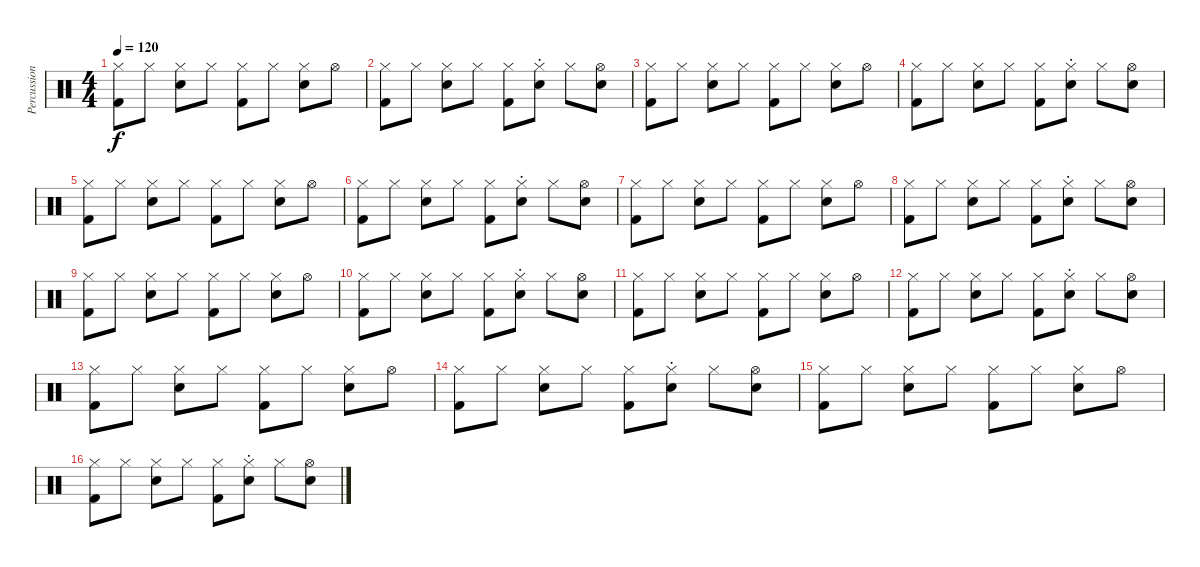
\track ("Percussion" "Percussion") {instrument percussion}
\staff {score}
\articulation defaults
\ts (4 4)
\tempo 120
\clef neutral
\ks c
("Hi-Hat (closed)" "Kick (hit) 2").8{dy f} "Hi-Hat (closed)".8 ("Hi-Hat (closed)" "Snare (hit) 2").8 "Hi-Hat (closed)".8 ("Hi-Hat (closed)" "Kick (hit) 2").8 "Hi-Hat (closed)".8 ("Hi-Hat (closed)" "Snare (hit) 2").8 "Hi-Hat (open)".8 |
("Hi-Hat (closed)" "Kick (hit) 2").8 "Hi-Hat (closed)".8 ("Hi-Hat (closed)" "Snare (hit) 2").8 "Hi-Hat (closed)".8 ("Hi-Hat (closed)" "Kick (hit) 2").8 ("Hi-Hat (closed)"{st} "Snare (hit) 2"{st}).8 "Hi-Hat (closed)".8 ("Hi-Hat (open)" "Snare (hit) 2").8 |
("Hi-Hat (closed)" "Kick (hit) 2").8 "Hi-Hat (closed)".8 ("Hi-Hat (closed)" "Snare (hit) 2").8 "Hi-Hat (closed)".8 ("Hi-Hat (closed)" "Kick (hit) 2").8 "Hi-Hat (closed)".8 ("Hi-Hat (closed)" "Snare (hit) 2").8 "Hi-Hat (open)".8 |
("Hi-Hat (closed)" "Kick (hit) 2").8 "Hi-Hat (closed)".8 ("Hi-Hat (closed)" "Snare (hit) 2").8 "Hi-Hat (closed)".8 ("Hi-Hat (closed)" "Kick (hit) 2").8 ("Hi-Hat (closed)"{st} "Snare (hit) 2"{st}).8 "Hi-Hat (closed)".8 ("Hi-Hat (open)" "Snare (hit) 2").8 |
("Hi-Hat (closed)" "Kick (hit) 2").8 "Hi-Hat (closed)".8 ("Hi-Hat (closed)" "Snare (hit) 2").8 "Hi-Hat (closed)".8 ("Hi-Hat (closed)" "Kick (hit) 2").8 "Hi-Hat (closed)".8 ("Hi-Hat (closed)" "Snare (hit) 2").8 "Hi-Hat (open)".8 |
("Hi-Hat (closed)" "Kick (hit) 2").8 "Hi-Hat (closed)".8 ("Hi-Hat (closed)" "Snare (hit) 2").8 "Hi-Hat (closed)".8 ("Hi-Hat (closed)" "Kick (hit) 2").8 ("Hi-Hat (closed)"{st} "Snare (hit) 2"{st}).8 "Hi-Hat (closed)".8 ("Hi-Hat (open)" "Snare (hit) 2").8 |
("Hi-Hat (closed)" "Kick (hit) 2").8 "Hi-Hat (closed)".8 ("Hi-Hat (closed)" "Snare (hit) 2").8 "Hi-Hat (closed)".8 ("Hi-Hat (closed)" "Kick (hit) 2").8 "Hi-Hat (closed)".8 ("Hi-Hat (closed)" "Snare (hit) 2").8 "Hi-Hat (open)".8 |
("Hi-Hat (closed)" "Kick (hit) 2").8 "Hi-Hat (closed)".8 ("Hi-Hat (closed)" "Snare (hit) 2").8 "Hi-Hat (closed)".8 ("Hi-Hat (closed)" "Kick (hit) 2").8 ("Hi-Hat (closed)"{st} "Snare (hit) 2"{st}).8 "Hi-Hat (closed)".8 ("Hi-Hat (open)" "Snare (hit) 2").8 |
("Hi-Hat (closed)" "Kick (hit) 2").8 "Hi-Hat (closed)".8 ("Hi-Hat (closed)" "Snare (hit) 2").8 "Hi-Hat (closed)".8 ("Hi-Hat (closed)" "Kick (hit) 2").8 "Hi-Hat (closed)".8 ("Hi-Hat (closed)" "Snare (hit) 2").8 "Hi-Hat (open)".8 |
("Hi-Hat (closed)" "Kick (hit) 2").8 "Hi-Hat (closed)".8 ("Hi-Hat (closed)" "Snare (hit) 2").8 "Hi-Hat (closed)".8 ("Hi-Hat (closed)" "Kick (hit) 2").8 ("Hi-Hat (closed)"{st} "Snare (hit) 2"{st}).8 "Hi-Hat (closed)".8 ("Hi-Hat (open)" "Snare (hit) 2").8 |
("Hi-Hat (closed)" "Kick (hit) 2").8 "Hi-Hat (closed)".8 ("Hi-Hat (closed)" "Snare (hit) 2").8 "Hi-Hat (closed)".8 ("Hi-Hat (closed)" "Kick (hit) 2").8 "Hi-Hat (closed)".8 ("Hi-Hat (closed)" "Snare (hit) 2").8 "Hi-Hat (open)".8 |
("Hi-Hat (closed)" "Kick (hit) 2").8 "Hi-Hat (closed)".8 ("Hi-Hat (closed)" "Snare (hit) 2").8 "Hi-Hat (closed)".8 ("Hi-Hat (closed)" "Kick (hit) 2").8 ("Hi-Hat (closed)"{st} "Snare (hit) 2"{st}).8 "Hi-Hat (closed)".8 ("Hi-Hat (open)" "Snare (hit) 2").8 |
("Hi-Hat (closed)" "Kick (hit) 2").8 "Hi-Hat (closed)".8 ("Hi-Hat (closed)" "Snare (hit) 2").8 "Hi-Hat (closed)".8 ("Hi-Hat (closed)" "Kick (hit) 2").8 "Hi-Hat (closed)".8 ("Hi-Hat (closed)" "Snare (hit) 2").8 "Hi-Hat (open)".8 |
("Hi-Hat (closed)" "Kick (hit) 2").8 "Hi-Hat (closed)".8 ("Hi-Hat (closed)" "Snare (hit) 2").8 "Hi-Hat (closed)".8 ("Hi-Hat (closed)" "Kick (hit) 2").8 ("Hi-Hat (closed)"{st} "Snare (hit) 2"{st}).8 "Hi-Hat (closed)".8 ("Hi-Hat (open)" "Snare (hit) 2").8 |
("Hi-Hat (closed)" "Kick (hit) 2").8 "Hi-Hat (closed)".8 ("Hi-Hat (closed)" "Snare (hit) 2").8 "Hi-Hat (closed)".8 ("Hi-Hat (closed)" "Kick (hit) 2").8 "Hi-Hat (closed)".8 ("Hi-Hat (closed)" "Snare (hit) 2").8 "Hi-Hat (open)".8 |
("Hi-Hat (closed)" "Kick (hit) 2").8 "Hi-Hat (closed)".8 ("Hi-Hat (closed)" "Snare (hit) 2").8 "Hi-Hat (closed)".8 ("Hi-Hat (closed)" "Kick (hit) 2").8 ("Hi-Hat (closed)"{st} "Snare (hit) 2"{st}).8 "Hi-Hat (closed)".8 ("Hi-Hat (open)" "Snare (hit) 2").8
